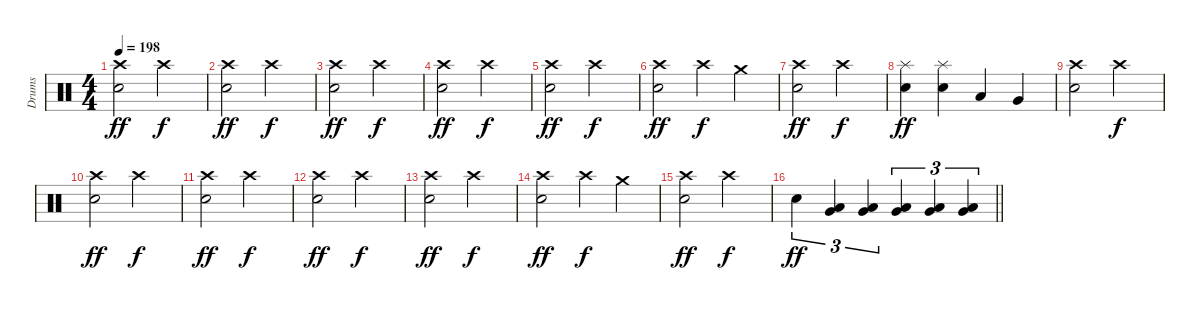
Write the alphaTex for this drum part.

\track ("Drums" "Drums") {instrument percussion}
\staff {score}
\articulation defaults
\ts (4 4)
\section ("" "")
\tempo 198
\clef neutral
\ks c
("Crash high (hit)" "Snare (hit) 2").2{dy ff volume 6} "Crash high (hit)".2{dy f} |
("Crash high (hit)" "Snare (hit) 2").2{dy ff} "Crash high (hit)".2{dy f} |
("Crash high (hit)" "Snare (hit) 2").2{dy ff} "Crash high (hit)".2{dy f} |
("Crash high (hit)" "Snare (hit) 2").2{dy ff} "Crash high (hit)".2{dy f} |
("Crash high (hit)" "Snare (hit) 2").2{dy ff volume 5} "Crash high (hit)".2{dy f} |
("Crash high (hit)" "Snare (hit) 2").2{dy ff} "Crash high (hit)".4{dy f} "Crash medium (hit)".4 |
("Crash high (hit)" "Snare (hit) 2").2{dy ff} "Crash high (hit)".2{dy f} |
("Splash (hit)" "Snare (hit) 2").4{dy ff} ("Splash (hit)" "Snare (hit) 2").4 "Low Tom (hit)".4 "Very Low Tom (hit)".4 |
("Crash high (hit)" "Snare (hit) 2").2{volume 4} "Crash high (hit)".2{dy f} |
("Crash high (hit)" "Snare (hit) 2").2{dy ff} "Crash high (hit)".2{dy f} |
("Crash high (hit)" "Snare (hit) 2").2{dy ff} "Crash high (hit)".2{dy f} |
("Crash high (hit)" "Snare (hit) 2").2{dy ff} "Crash high (hit)".2{dy f} |
("Crash high (hit)" "Snare (hit) 2").2{dy ff volume 3} "Crash high (hit)".2{dy f} |
("Crash high (hit)" "Snare (hit) 2").2{dy ff} "Crash high (hit)".4{dy f} "Crash medium (hit)".4 |
("Crash high (hit)" "Snare (hit) 2").2{dy ff} "Crash high (hit)".2{dy f} |
\barLineRight lightlight "Snare (hit) 2".4{tu (3 2) dy ff}
("Low Tom (hit)" "Very Low Tom (hit)").4{tu (3 2)} ("Low Tom (hit)" "Very Low Tom (hit)").4{tu (3 2)} ("Very Low Tom (hit)" "Low Floor Tom (hit)").4{tu (3 2)} ("Very Low Tom (hit)" "Low Floor Tom (hit)").4{tu (3 2)} ("Very Low Tom (hit)" "Low Floor Tom (hit)").4{tu (3 2)}
